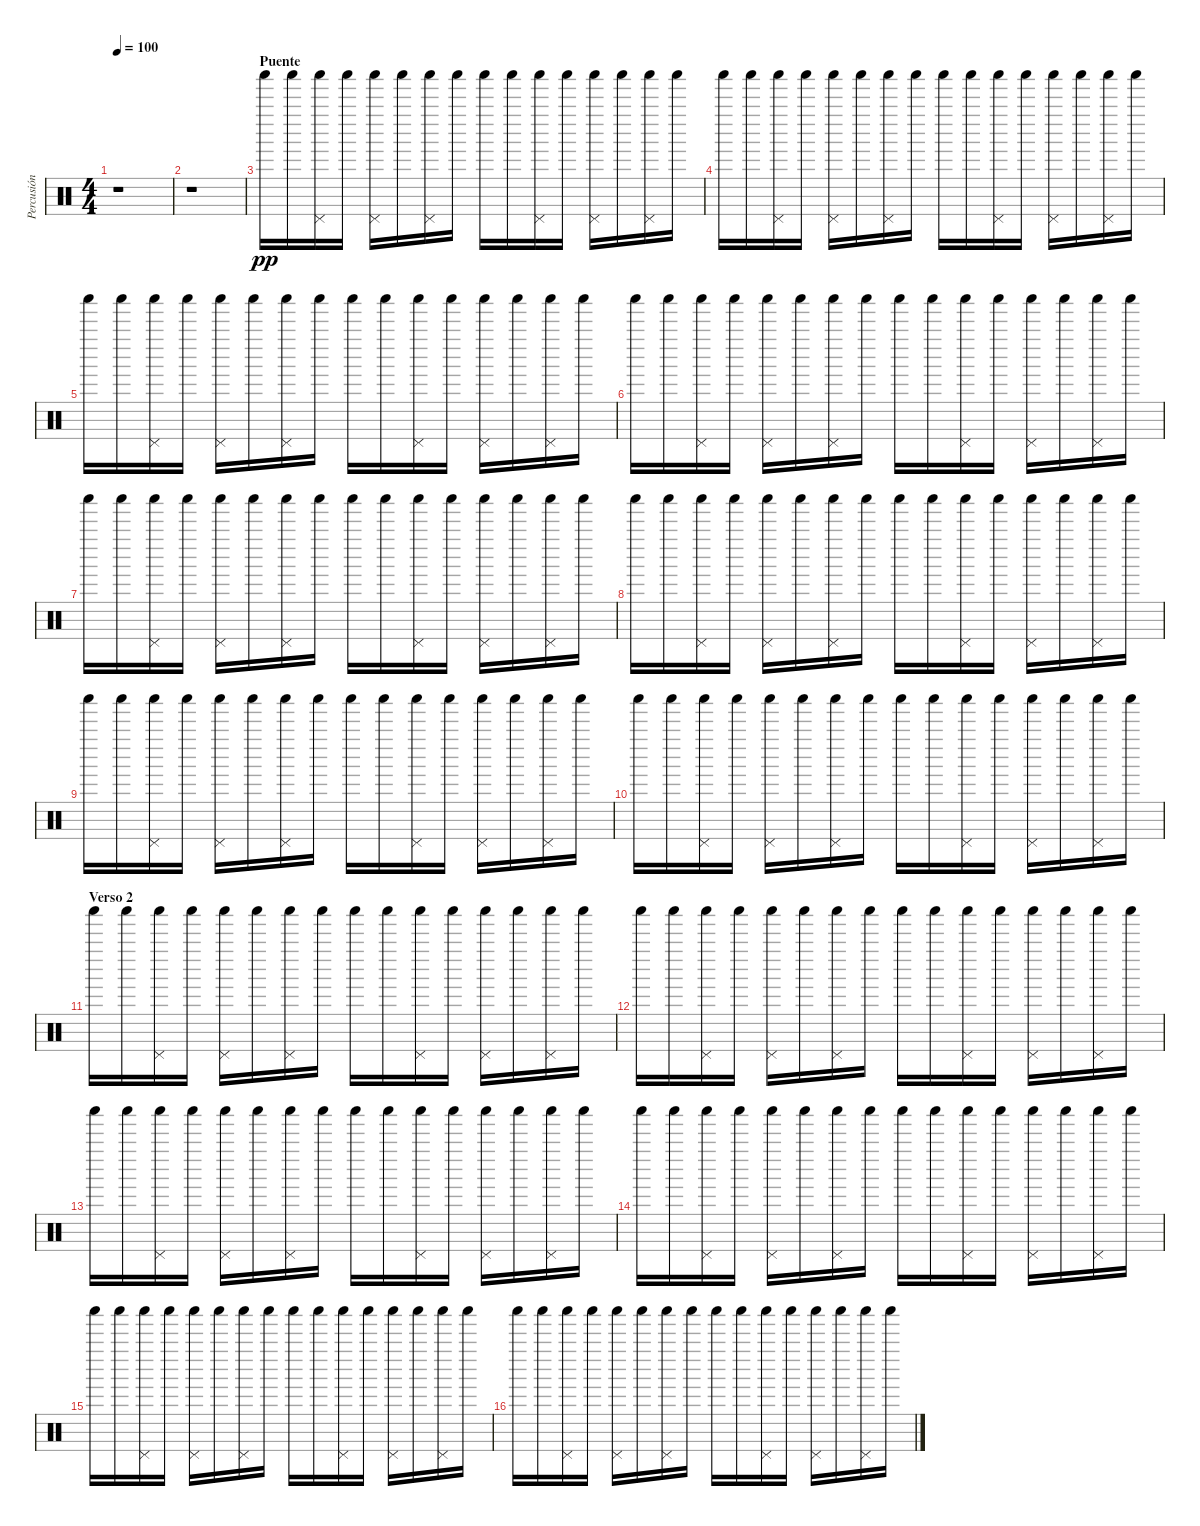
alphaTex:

\track ("Percusión" "Percusión") {instrument percussion}
\staff {score}
\articulation defaults
\ts (4 4)
\tempo 100
\clef neutral
\ks c
r.1{dy pp} |
r.1 |
\section ("" "Puente")
"Shaker (hit)".16 "Shaker (hit)".16 ("Shaker (hit)" "Pedal Hi-Hat (hit)").16 "Shaker (hit)".16 ("Shaker (hit)" "Pedal Hi-Hat (hit)").16 "Shaker (hit)".16 ("Shaker (hit)" "Pedal Hi-Hat (hit)").16 "Shaker (hit)".16 "Shaker (hit)".16 "Shaker (hit)".16 ("Shaker (hit)" "Pedal Hi-Hat (hit)").16 "Shaker (hit)".16 ("Shaker (hit)" "Pedal Hi-Hat (hit)").16 "Shaker (hit)".16 ("Shaker (hit)" "Pedal Hi-Hat (hit)").16 "Shaker (hit)".16 |
"Shaker (hit)".16 "Shaker (hit)".16 ("Shaker (hit)" "Pedal Hi-Hat (hit)").16 "Shaker (hit)".16 ("Shaker (hit)" "Pedal Hi-Hat (hit)").16 "Shaker (hit)".16 ("Shaker (hit)" "Pedal Hi-Hat (hit)").16 "Shaker (hit)".16 "Shaker (hit)".16 "Shaker (hit)".16 ("Shaker (hit)" "Pedal Hi-Hat (hit)").16 "Shaker (hit)".16 ("Shaker (hit)" "Pedal Hi-Hat (hit)").16 "Shaker (hit)".16 ("Shaker (hit)" "Pedal Hi-Hat (hit)").16 "Shaker (hit)".16 |
"Shaker (hit)".16 "Shaker (hit)".16 ("Shaker (hit)" "Pedal Hi-Hat (hit)").16 "Shaker (hit)".16 ("Shaker (hit)" "Pedal Hi-Hat (hit)").16 "Shaker (hit)".16 ("Shaker (hit)" "Pedal Hi-Hat (hit)").16 "Shaker (hit)".16 "Shaker (hit)".16 "Shaker (hit)".16 ("Shaker (hit)" "Pedal Hi-Hat (hit)").16 "Shaker (hit)".16 ("Shaker (hit)" "Pedal Hi-Hat (hit)").16 "Shaker (hit)".16 ("Shaker (hit)" "Pedal Hi-Hat (hit)").16 "Shaker (hit)".16 |
"Shaker (hit)".16 "Shaker (hit)".16 ("Shaker (hit)" "Pedal Hi-Hat (hit)").16 "Shaker (hit)".16 ("Shaker (hit)" "Pedal Hi-Hat (hit)").16 "Shaker (hit)".16 ("Shaker (hit)" "Pedal Hi-Hat (hit)").16 "Shaker (hit)".16 "Shaker (hit)".16 "Shaker (hit)".16 ("Shaker (hit)" "Pedal Hi-Hat (hit)").16 "Shaker (hit)".16 ("Shaker (hit)" "Pedal Hi-Hat (hit)").16 "Shaker (hit)".16 ("Shaker (hit)" "Pedal Hi-Hat (hit)").16 "Shaker (hit)".16 |
"Shaker (hit)".16 "Shaker (hit)".16 ("Shaker (hit)" "Pedal Hi-Hat (hit)").16 "Shaker (hit)".16 ("Shaker (hit)" "Pedal Hi-Hat (hit)").16 "Shaker (hit)".16 ("Shaker (hit)" "Pedal Hi-Hat (hit)").16 "Shaker (hit)".16 "Shaker (hit)".16 "Shaker (hit)".16 ("Shaker (hit)" "Pedal Hi-Hat (hit)").16 "Shaker (hit)".16 ("Shaker (hit)" "Pedal Hi-Hat (hit)").16 "Shaker (hit)".16 ("Shaker (hit)" "Pedal Hi-Hat (hit)").16 "Shaker (hit)".16 |
"Shaker (hit)".16 "Shaker (hit)".16 ("Shaker (hit)" "Pedal Hi-Hat (hit)").16 "Shaker (hit)".16 ("Shaker (hit)" "Pedal Hi-Hat (hit)").16 "Shaker (hit)".16 ("Shaker (hit)" "Pedal Hi-Hat (hit)").16 "Shaker (hit)".16 "Shaker (hit)".16 "Shaker (hit)".16 ("Shaker (hit)" "Pedal Hi-Hat (hit)").16 "Shaker (hit)".16 ("Shaker (hit)" "Pedal Hi-Hat (hit)").16 "Shaker (hit)".16 ("Shaker (hit)" "Pedal Hi-Hat (hit)").16 "Shaker (hit)".16 |
"Shaker (hit)".16 "Shaker (hit)".16 ("Shaker (hit)" "Pedal Hi-Hat (hit)").16 "Shaker (hit)".16 ("Shaker (hit)" "Pedal Hi-Hat (hit)").16 "Shaker (hit)".16 ("Shaker (hit)" "Pedal Hi-Hat (hit)").16 "Shaker (hit)".16 "Shaker (hit)".16 "Shaker (hit)".16 ("Shaker (hit)" "Pedal Hi-Hat (hit)").16 "Shaker (hit)".16 ("Shaker (hit)" "Pedal Hi-Hat (hit)").16 "Shaker (hit)".16 ("Shaker (hit)" "Pedal Hi-Hat (hit)").16 "Shaker (hit)".16 |
"Shaker (hit)".16 "Shaker (hit)".16 ("Shaker (hit)" "Pedal Hi-Hat (hit)").16 "Shaker (hit)".16 ("Shaker (hit)" "Pedal Hi-Hat (hit)").16 "Shaker (hit)".16 ("Shaker (hit)" "Pedal Hi-Hat (hit)").16 "Shaker (hit)".16 "Shaker (hit)".16 "Shaker (hit)".16 ("Shaker (hit)" "Pedal Hi-Hat (hit)").16 "Shaker (hit)".16 ("Shaker (hit)" "Pedal Hi-Hat (hit)").16 "Shaker (hit)".16 ("Shaker (hit)" "Pedal Hi-Hat (hit)").16 "Shaker (hit)".16 |
\section ("" "Verso 2")
"Shaker (hit)".16 "Shaker (hit)".16 ("Shaker (hit)" "Pedal Hi-Hat (hit)").16 "Shaker (hit)".16 ("Shaker (hit)" "Pedal Hi-Hat (hit)").16 "Shaker (hit)".16 ("Shaker (hit)" "Pedal Hi-Hat (hit)").16 "Shaker (hit)".16 "Shaker (hit)".16 "Shaker (hit)".16 ("Shaker (hit)" "Pedal Hi-Hat (hit)").16 "Shaker (hit)".16 ("Shaker (hit)" "Pedal Hi-Hat (hit)").16 "Shaker (hit)".16 ("Shaker (hit)" "Pedal Hi-Hat (hit)").16 "Shaker (hit)".16 |
"Shaker (hit)".16 "Shaker (hit)".16 ("Shaker (hit)" "Pedal Hi-Hat (hit)").16 "Shaker (hit)".16 ("Shaker (hit)" "Pedal Hi-Hat (hit)").16 "Shaker (hit)".16 ("Shaker (hit)" "Pedal Hi-Hat (hit)").16 "Shaker (hit)".16 "Shaker (hit)".16 "Shaker (hit)".16 ("Shaker (hit)" "Pedal Hi-Hat (hit)").16 "Shaker (hit)".16 ("Shaker (hit)" "Pedal Hi-Hat (hit)").16 "Shaker (hit)".16 ("Shaker (hit)" "Pedal Hi-Hat (hit)").16 "Shaker (hit)".16 |
"Shaker (hit)".16 "Shaker (hit)".16 ("Shaker (hit)" "Pedal Hi-Hat (hit)").16 "Shaker (hit)".16 ("Shaker (hit)" "Pedal Hi-Hat (hit)").16 "Shaker (hit)".16 ("Shaker (hit)" "Pedal Hi-Hat (hit)").16 "Shaker (hit)".16 "Shaker (hit)".16 "Shaker (hit)".16 ("Shaker (hit)" "Pedal Hi-Hat (hit)").16 "Shaker (hit)".16 ("Shaker (hit)" "Pedal Hi-Hat (hit)").16 "Shaker (hit)".16 ("Shaker (hit)" "Pedal Hi-Hat (hit)").16 "Shaker (hit)".16 |
"Shaker (hit)".16 "Shaker (hit)".16 ("Shaker (hit)" "Pedal Hi-Hat (hit)").16 "Shaker (hit)".16 ("Shaker (hit)" "Pedal Hi-Hat (hit)").16 "Shaker (hit)".16 ("Shaker (hit)" "Pedal Hi-Hat (hit)").16 "Shaker (hit)".16 "Shaker (hit)".16 "Shaker (hit)".16 ("Shaker (hit)" "Pedal Hi-Hat (hit)").16 "Shaker (hit)".16 ("Shaker (hit)" "Pedal Hi-Hat (hit)").16 "Shaker (hit)".16 ("Shaker (hit)" "Pedal Hi-Hat (hit)").16 "Shaker (hit)".16 |
"Shaker (hit)".16 "Shaker (hit)".16 ("Shaker (hit)" "Pedal Hi-Hat (hit)").16 "Shaker (hit)".16 ("Shaker (hit)" "Pedal Hi-Hat (hit)").16 "Shaker (hit)".16 ("Shaker (hit)" "Pedal Hi-Hat (hit)").16 "Shaker (hit)".16 "Shaker (hit)".16 "Shaker (hit)".16 ("Shaker (hit)" "Pedal Hi-Hat (hit)").16 "Shaker (hit)".16 ("Shaker (hit)" "Pedal Hi-Hat (hit)").16 "Shaker (hit)".16 ("Shaker (hit)" "Pedal Hi-Hat (hit)").16 "Shaker (hit)".16 |
"Shaker (hit)".16 "Shaker (hit)".16 ("Shaker (hit)" "Pedal Hi-Hat (hit)").16 "Shaker (hit)".16 ("Shaker (hit)" "Pedal Hi-Hat (hit)").16 "Shaker (hit)".16 ("Shaker (hit)" "Pedal Hi-Hat (hit)").16 "Shaker (hit)".16 "Shaker (hit)".16 "Shaker (hit)".16 ("Shaker (hit)" "Pedal Hi-Hat (hit)").16 "Shaker (hit)".16 ("Shaker (hit)" "Pedal Hi-Hat (hit)").16 "Shaker (hit)".16 ("Shaker (hit)" "Pedal Hi-Hat (hit)").16 "Shaker (hit)".16
